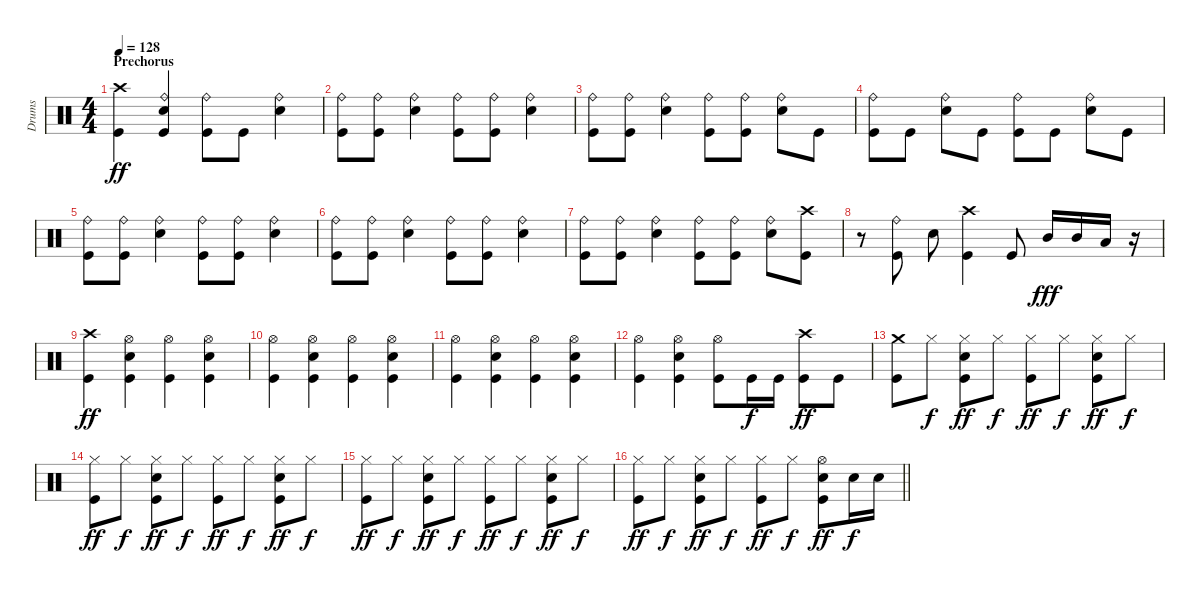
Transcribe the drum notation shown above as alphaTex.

\track ("Drums" "Drums") {instrument percussion}
\staff {score}
\articulation defaults
\ts (4 4)
\section ("" "Prechorus")
\tempo 128
\clef neutral
\ks c
("Crash high (hit)" "Kick (hit)").4{dy ff} ("Ride (bell)" "Electric Snare (hit)" "Kick (hit)").4 ("Ride (bell)" "Kick (hit)").8 "Kick (hit)".8 ("Ride (bell)" "Electric Snare (hit)").4 |
("Ride (bell)" "Kick (hit)").8 ("Ride (bell)" "Kick (hit)").8 ("Ride (bell)" "Electric Snare (hit)").4 ("Ride (bell)" "Kick (hit)").8 ("Ride (bell)" "Kick (hit)").8 ("Ride (bell)" "Electric Snare (hit)").4 |
("Ride (bell)" "Kick (hit)").8 ("Ride (bell)" "Kick (hit)").8 ("Ride (bell)" "Electric Snare (hit)").4 ("Ride (bell)" "Kick (hit)").8 ("Ride (bell)" "Kick (hit)").8 ("Ride (bell)" "Electric Snare (hit)").8 "Kick (hit)".8 |
("Ride (bell)" "Kick (hit)").8 "Kick (hit)".8 ("Ride (bell)" "Electric Snare (hit)").8 "Kick (hit)".8 ("Ride (bell)" "Kick (hit)").8 "Kick (hit)".8 ("Ride (bell)" "Electric Snare (hit)").8 "Kick (hit)".8 |
("Ride (bell)" "Kick (hit)").8 ("Ride (bell)" "Kick (hit)").8 ("Ride (bell)" "Electric Snare (hit)").4 ("Ride (bell)" "Kick (hit)").8 ("Ride (bell)" "Kick (hit)").8 ("Ride (bell)" "Electric Snare (hit)").4 |
("Ride (bell)" "Kick (hit)").8 ("Ride (bell)" "Kick (hit)").8 ("Ride (bell)" "Electric Snare (hit)").4 ("Ride (bell)" "Kick (hit)").8 ("Ride (bell)" "Kick (hit)").8 ("Ride (bell)" "Electric Snare (hit)").4 |
("Ride (bell)" "Kick (hit)").8 ("Ride (bell)" "Kick (hit)").8 ("Ride (bell)" "Electric Snare (hit)").4 ("Ride (bell)" "Kick (hit)").8 ("Ride (bell)" "Kick (hit)").8 ("Ride (bell)" "Electric Snare (hit)").8 ("Crash high (hit)" "Kick (hit)").8 |
r.8 ("Ride (bell)" "Kick (hit)").8 "Electric Snare (hit)".8 ("Crash high (hit)" "Kick (hit)").4 "Kick (hit)".8 "Mid Tom (hit)".16{dy fff} "Mid Tom (hit)".16 "Low Tom (hit)".16 r.16 |
("Crash high (hit)" "Kick (hit)").4{dy ff} ("Hi-Hat (open)" "Electric Snare (hit)" "Kick (hit)").4 ("Hi-Hat (open)" "Kick (hit)").4 ("Hi-Hat (open)" "Electric Snare (hit)" "Kick (hit)").4 |
("Hi-Hat (open)" "Kick (hit)").4 ("Hi-Hat (open)" "Electric Snare (hit)" "Kick (hit)").4 ("Hi-Hat (open)" "Kick (hit)").4 ("Hi-Hat (open)" "Electric Snare (hit)" "Kick (hit)").4 |
("Hi-Hat (open)" "Kick (hit)").4 ("Hi-Hat (open)" "Electric Snare (hit)" "Kick (hit)").4 ("Hi-Hat (open)" "Kick (hit)").4 ("Hi-Hat (open)" "Electric Snare (hit)" "Kick (hit)").4 |
("Hi-Hat (open)" "Kick (hit)").4 ("Hi-Hat (open)" "Electric Snare (hit)" "Kick (hit)").4 ("Hi-Hat (open)" "Kick (hit)").8 "Kick (hit)".16{dy f} "Kick (hit)".16 ("Crash high (hit)" "Kick (hit)").8{dy ff} "Kick (hit)".8 |
("Crash medium (hit)" "Kick (hit)").8 "Hi-Hat (closed)".8{dy f} ("Hi-Hat (closed)" "Electric Snare (hit)" "Kick (hit)").8{dy ff} "Hi-Hat (closed)".8{dy f} ("Hi-Hat (closed)" "Kick (hit)").8{dy ff} "Hi-Hat (closed)".8{dy f} ("Hi-Hat (closed)" "Electric Snare (hit)" "Kick (hit)").8{dy ff} "Hi-Hat (closed)".8{dy f} |
("Hi-Hat (closed)" "Kick (hit)").8{dy ff} "Hi-Hat (closed)".8{dy f} ("Hi-Hat (closed)" "Electric Snare (hit)" "Kick (hit)").8{dy ff} "Hi-Hat (closed)".8{dy f} ("Hi-Hat (closed)" "Kick (hit)").8{dy ff} "Hi-Hat (closed)".8{dy f} ("Hi-Hat (closed)" "Electric Snare (hit)" "Kick (hit)").8{dy ff} "Hi-Hat (closed)".8{dy f} |
("Hi-Hat (closed)" "Kick (hit)").8{dy ff} "Hi-Hat (closed)".8{dy f} ("Hi-Hat (closed)" "Electric Snare (hit)" "Kick (hit)").8{dy ff} "Hi-Hat (closed)".8{dy f} ("Hi-Hat (closed)" "Kick (hit)").8{dy ff} "Hi-Hat (closed)".8{dy f} ("Hi-Hat (closed)" "Electric Snare (hit)" "Kick (hit)").8{dy ff} "Hi-Hat (closed)".8{dy f} |
\barLineRight lightlight
("Hi-Hat (closed)" "Kick (hit)").8{dy ff} "Hi-Hat (closed)".8{dy f} ("Hi-Hat (closed)" "Electric Snare (hit)" "Kick (hit)").8{dy ff} "Hi-Hat (closed)".8{dy f} ("Hi-Hat (closed)" "Kick (hit)").8{dy ff} "Hi-Hat (closed)".8{dy f} ("Hi-Hat (open)" "Electric Snare (hit)" "Kick (hit)").8{dy ff} "Electric Snare (hit)".16{dy f} "Electric Snare (hit)".16
